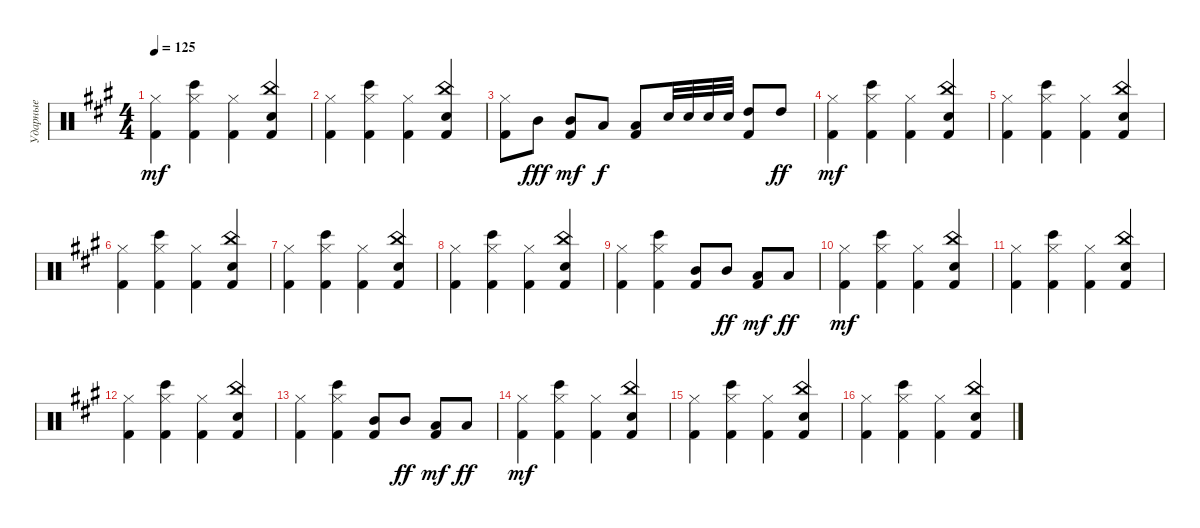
\track ("Ударные" "Ударные") {instrument percussion}
\staff {score}
\articulation defaults
\ts (4 4)
\tempo 125
\clef neutral
\ks f#minor
("Hi-Hat (closed)" "Kick (hit) 2").4{dy mf} ("Hi-Hat (closed)" "Bongo High (hit)" "Kick (hit) 2").4 ("Hi-Hat (closed)" "Kick (hit) 2").4 ("China (hit)" "Electric Snare (hit)" "Kick (hit) 2").4 |
("Hi-Hat (closed)" "Kick (hit) 2").4 ("Hi-Hat (closed)" "Bongo High (hit)" "Kick (hit) 2").4 ("Hi-Hat (closed)" "Kick (hit) 2").4 ("China (hit)" "Electric Snare (hit)" "Kick (hit) 2").4 |
("Hi-Hat (closed)" "Kick (hit) 2").8 "Mid Tom (hit)".8{dy fff} ("Mid Tom (hit)" "Kick (hit) 2").8{dy mf} "Low Tom (hit)".8{dy f} ("Low Tom (hit)" "Kick (hit) 2").8 "Snare (hit) 2".32 "Snare (hit) 2".32 "Snare (hit) 2".32 "Snare (hit) 2".32 ("High Tom (hit)" "Kick (hit) 2").8 "High Tom (hit)".8{dy ff} |
("Hi-Hat (closed)" "Kick (hit) 2").4{dy mf} ("Hi-Hat (closed)" "Bongo High (hit)" "Kick (hit) 2").4 ("Hi-Hat (closed)" "Kick (hit) 2").4 ("China (hit)" "Electric Snare (hit)" "Kick (hit) 2").4 |
("Hi-Hat (closed)" "Kick (hit) 2").4 ("Hi-Hat (closed)" "Bongo High (hit)" "Kick (hit) 2").4 ("Hi-Hat (closed)" "Kick (hit) 2").4 ("China (hit)" "Electric Snare (hit)" "Kick (hit) 2").4 |
("Hi-Hat (closed)" "Kick (hit) 2").4 ("Hi-Hat (closed)" "Bongo High (hit)" "Kick (hit) 2").4 ("Hi-Hat (closed)" "Kick (hit) 2").4 ("China (hit)" "Electric Snare (hit)" "Kick (hit) 2").4 |
("Hi-Hat (closed)" "Kick (hit) 2").4 ("Hi-Hat (closed)" "Bongo High (hit)" "Kick (hit) 2").4 ("Hi-Hat (closed)" "Kick (hit) 2").4 ("China (hit)" "Electric Snare (hit)" "Kick (hit) 2").4 |
("Hi-Hat (closed)" "Kick (hit) 2").4 ("Hi-Hat (closed)" "Bongo High (hit)" "Kick (hit) 2").4 ("Hi-Hat (closed)" "Kick (hit) 2").4 ("China (hit)" "Electric Snare (hit)" "Kick (hit) 2").4 |
("Hi-Hat (closed)" "Kick (hit) 2").4 ("Hi-Hat (closed)" "Bongo High (hit)" "Kick (hit) 2").4 ("Mid Tom (hit)" "Kick (hit) 2").8 "Mid Tom (hit)".8{dy ff} ("Low Tom (hit)" "Kick (hit) 2").8{dy mf} "Low Tom (hit)".8{dy ff} |
("Hi-Hat (closed)" "Kick (hit) 2").4{dy mf} ("Hi-Hat (closed)" "Bongo High (hit)" "Kick (hit) 2").4 ("Hi-Hat (closed)" "Kick (hit) 2").4 ("China (hit)" "Electric Snare (hit)" "Kick (hit) 2").4 |
("Hi-Hat (closed)" "Kick (hit) 2").4 ("Hi-Hat (closed)" "Bongo High (hit)" "Kick (hit) 2").4 ("Hi-Hat (closed)" "Kick (hit) 2").4 ("China (hit)" "Electric Snare (hit)" "Kick (hit) 2").4 |
("Hi-Hat (closed)" "Kick (hit) 2").4 ("Hi-Hat (closed)" "Bongo High (hit)" "Kick (hit) 2").4 ("Hi-Hat (closed)" "Kick (hit) 2").4 ("China (hit)" "Electric Snare (hit)" "Kick (hit) 2").4 |
("Hi-Hat (closed)" "Kick (hit) 2").4 ("Hi-Hat (closed)" "Bongo High (hit)" "Kick (hit) 2").4 ("Mid Tom (hit)" "Kick (hit) 2").8 "Mid Tom (hit)".8{dy ff} ("Low Tom (hit)" "Kick (hit) 2").8{dy mf} "Low Tom (hit)".8{dy ff} |
("Hi-Hat (closed)" "Kick (hit) 2").4{dy mf} ("Hi-Hat (closed)" "Bongo High (hit)" "Kick (hit) 2").4 ("Hi-Hat (closed)" "Kick (hit) 2").4 ("China (hit)" "Electric Snare (hit)" "Kick (hit) 2").4 |
("Hi-Hat (closed)" "Kick (hit) 2").4 ("Hi-Hat (closed)" "Bongo High (hit)" "Kick (hit) 2").4 ("Hi-Hat (closed)" "Kick (hit) 2").4 ("China (hit)" "Electric Snare (hit)" "Kick (hit) 2").4 |
("Hi-Hat (closed)" "Kick (hit) 2").4 ("Hi-Hat (closed)" "Bongo High (hit)" "Kick (hit) 2").4 ("Hi-Hat (closed)" "Kick (hit) 2").4 ("China (hit)" "Electric Snare (hit)" "Kick (hit) 2").4
